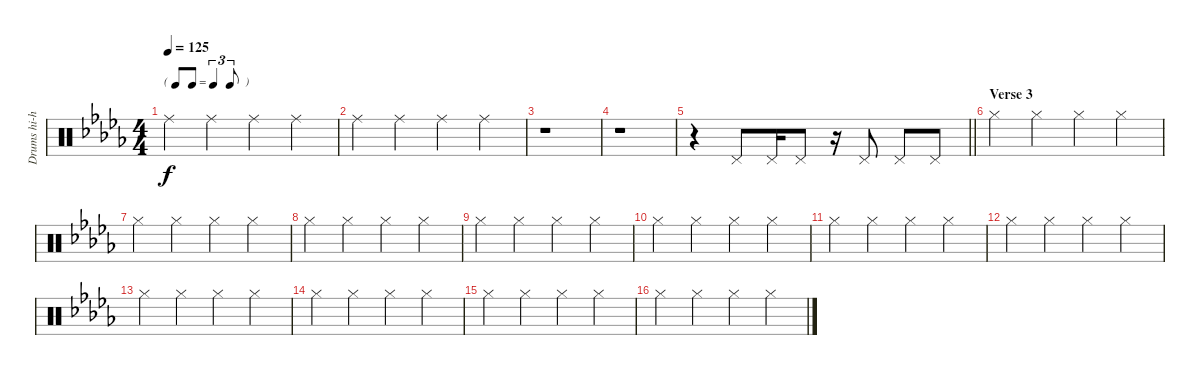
\track ("Drums hi-hat" "Drums hi-h") {instrument percussion}
\staff {score}
\articulation defaults
\ts (4 4)
\tf triplet8th
\tempo 125
\clef neutral
\ks db "Ride (middle)".4{dy f} "Ride (middle)".4 "Ride (middle)".4 "Ride (middle)".4
|
"Ride (middle)".4 "Ride (middle)".4 "Ride (middle)".4 "Ride (middle)".4 |
r.1 |
r.1 |
\barLineRight lightlight
r.4 "Pedal Hi-Hat (hit)".8 "Pedal Hi-Hat (hit)".16 "Pedal Hi-Hat (hit)".8 r.16 "Pedal Hi-Hat (hit)".8 "Pedal Hi-Hat (hit)".8 "Pedal Hi-Hat (hit)".8 |
\section ("" "Verse 3")
"Hi-Hat (closed)".4 "Hi-Hat (closed)".4 "Hi-Hat (closed)".4 "Hi-Hat (closed)".4 |
"Hi-Hat (closed)".4 "Hi-Hat (closed)".4 "Hi-Hat (closed)".4 "Hi-Hat (closed)".4 |
"Hi-Hat (closed)".4 "Hi-Hat (closed)".4 "Hi-Hat (closed)".4 "Hi-Hat (closed)".4 |
"Hi-Hat (closed)".4 "Hi-Hat (closed)".4 "Hi-Hat (closed)".4 "Hi-Hat (closed)".4 |
"Hi-Hat (closed)".4 "Hi-Hat (closed)".4 "Hi-Hat (closed)".4 "Hi-Hat (closed)".4 |
"Hi-Hat (closed)".4 "Hi-Hat (closed)".4 "Hi-Hat (closed)".4 "Hi-Hat (closed)".4 |
"Hi-Hat (closed)".4 "Hi-Hat (closed)".4 "Hi-Hat (closed)".4 "Hi-Hat (closed)".4 |
"Hi-Hat (closed)".4 "Hi-Hat (closed)".4 "Hi-Hat (closed)".4 "Hi-Hat (closed)".4 |
"Hi-Hat (closed)".4 "Hi-Hat (closed)".4 "Hi-Hat (closed)".4 "Hi-Hat (closed)".4 |
"Hi-Hat (closed)".4 "Hi-Hat (closed)".4 "Hi-Hat (closed)".4 "Hi-Hat (closed)".4 |
"Hi-Hat (closed)".4 "Hi-Hat (closed)".4 "Hi-Hat (closed)".4 "Hi-Hat (closed)".4
